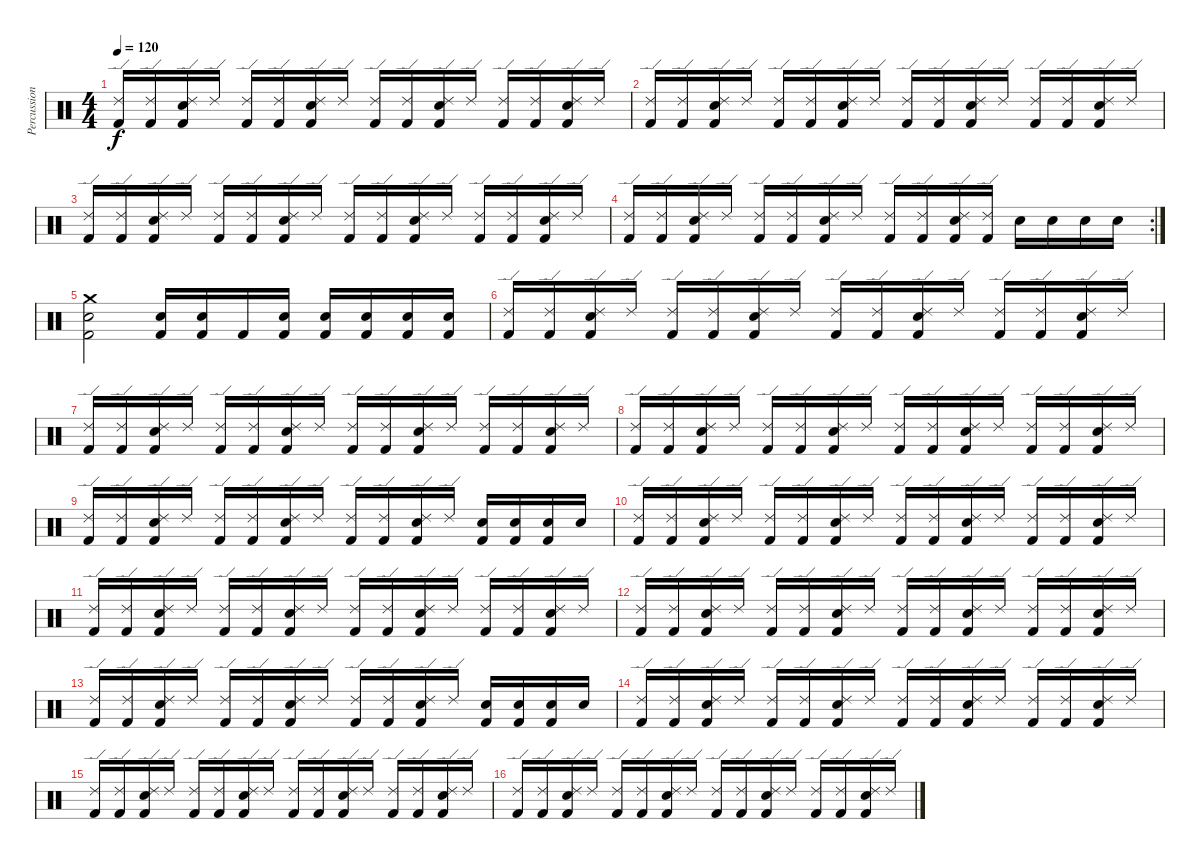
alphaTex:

\track ("Percussion" "Percussion") {instrument percussion}
\staff {score}
\articulation defaults
\ts (4 4)
\tempo 120
\clef neutral
\ks c
("Kick (hit) 2" "Ride (edge) 2").16{dy f} ("Kick (hit) 2" "Ride (edge) 2").16 ("Kick (hit) 2" "Snare (hit) 2" "Ride (edge) 2").16 "Ride (edge) 2".16 ("Kick (hit) 2" "Ride (edge) 2").16 ("Kick (hit) 2" "Ride (edge) 2").16 ("Kick (hit) 2" "Snare (hit) 2" "Ride (edge) 2").16 "Ride (edge) 2".16 ("Kick (hit) 2" "Ride (edge) 2").16 ("Kick (hit) 2" "Ride (edge) 2").16 ("Kick (hit) 2" "Snare (hit) 2" "Ride (edge) 2").16 "Ride (edge) 2".16 ("Kick (hit) 2" "Ride (edge) 2").16 ("Kick (hit) 2" "Ride (edge) 2").16 ("Kick (hit) 2" "Snare (hit) 2" "Ride (edge) 2").16 "Ride (edge) 2".16 |
("Kick (hit) 2" "Ride (edge) 2").16 ("Kick (hit) 2" "Ride (edge) 2").16 ("Kick (hit) 2" "Snare (hit) 2" "Ride (edge) 2").16 "Ride (edge) 2".16 ("Kick (hit) 2" "Ride (edge) 2").16 ("Kick (hit) 2" "Ride (edge) 2").16 ("Kick (hit) 2" "Snare (hit) 2" "Ride (edge) 2").16 "Ride (edge) 2".16 ("Kick (hit) 2" "Ride (edge) 2").16 ("Kick (hit) 2" "Ride (edge) 2").16 ("Kick (hit) 2" "Snare (hit) 2" "Ride (edge) 2").16 "Ride (edge) 2".16 ("Kick (hit) 2" "Ride (edge) 2").16 ("Kick (hit) 2" "Ride (edge) 2").16 ("Kick (hit) 2" "Snare (hit) 2" "Ride (edge) 2").16 "Ride (edge) 2".16 |
("Kick (hit) 2" "Ride (edge) 2").16 ("Kick (hit) 2" "Ride (edge) 2").16 ("Kick (hit) 2" "Snare (hit) 2" "Ride (edge) 2").16 "Ride (edge) 2".16 ("Kick (hit) 2" "Ride (edge) 2").16 ("Kick (hit) 2" "Ride (edge) 2").16 ("Kick (hit) 2" "Snare (hit) 2" "Ride (edge) 2").16 "Ride (edge) 2".16 ("Kick (hit) 2" "Ride (edge) 2").16 ("Kick (hit) 2" "Ride (edge) 2").16 ("Kick (hit) 2" "Snare (hit) 2" "Ride (edge) 2").16 "Ride (edge) 2".16 ("Kick (hit) 2" "Ride (edge) 2").16 ("Kick (hit) 2" "Ride (edge) 2").16 ("Kick (hit) 2" "Snare (hit) 2" "Ride (edge) 2").16 "Ride (edge) 2".16 |
\rc 2
("Kick (hit) 2" "Ride (edge) 2").16 ("Kick (hit) 2" "Ride (edge) 2").16 ("Kick (hit) 2" "Snare (hit) 2" "Ride (edge) 2").16 "Ride (edge) 2".16 ("Kick (hit) 2" "Ride (edge) 2").16 ("Kick (hit) 2" "Ride (edge) 2").16 ("Kick (hit) 2" "Snare (hit) 2" "Ride (edge) 2").16 "Ride (edge) 2".16 ("Kick (hit) 2" "Ride (edge) 2").16 ("Kick (hit) 2" "Ride (edge) 2").16 ("Kick (hit) 2" "Snare (hit) 2" "Ride (edge) 2").16 ("Kick (hit) 2" "Ride (edge) 2").16 "Snare (hit) 2".16 "Snare (hit) 2".16 "Snare (hit) 2".16 "Snare (hit) 2".16 |
("Kick (hit) 2" "Snare (hit) 2" "Crash medium (hit)").2 ("Kick (hit) 2" "Snare (hit) 2").16 ("Kick (hit) 2" "Snare (hit) 2").16 "Kick (hit) 2".16 ("Kick (hit) 2" "Snare (hit) 2").16 ("Kick (hit) 2" "Snare (hit) 2").16 ("Kick (hit) 2" "Snare (hit) 2").16 ("Kick (hit) 2" "Snare (hit) 2").16 ("Kick (hit) 2" "Snare (hit) 2").16 |
("Kick (hit) 2" "Ride (edge) 2").16 ("Kick (hit) 2" "Ride (edge) 2").16 ("Kick (hit) 2" "Snare (hit) 2" "Ride (edge) 2").16 "Ride (edge) 2".16 ("Kick (hit) 2" "Ride (edge) 2").16 ("Kick (hit) 2" "Ride (edge) 2").16 ("Kick (hit) 2" "Snare (hit) 2" "Ride (edge) 2").16 "Ride (edge) 2".16 ("Kick (hit) 2" "Ride (edge) 2").16 ("Kick (hit) 2" "Ride (edge) 2").16 ("Kick (hit) 2" "Snare (hit) 2" "Ride (edge) 2").16 "Ride (edge) 2".16 ("Kick (hit) 2" "Ride (edge) 2").16 ("Kick (hit) 2" "Ride (edge) 2").16 ("Kick (hit) 2" "Snare (hit) 2" "Ride (edge) 2").16 "Ride (edge) 2".16 |
("Kick (hit) 2" "Ride (edge) 2").16 ("Kick (hit) 2" "Ride (edge) 2").16 ("Kick (hit) 2" "Snare (hit) 2" "Ride (edge) 2").16 "Ride (edge) 2".16 ("Kick (hit) 2" "Ride (edge) 2").16 ("Kick (hit) 2" "Ride (edge) 2").16 ("Kick (hit) 2" "Snare (hit) 2" "Ride (edge) 2").16 "Ride (edge) 2".16 ("Kick (hit) 2" "Ride (edge) 2").16 ("Kick (hit) 2" "Ride (edge) 2").16 ("Kick (hit) 2" "Snare (hit) 2" "Ride (edge) 2").16 "Ride (edge) 2".16 ("Kick (hit) 2" "Ride (edge) 2").16 ("Kick (hit) 2" "Ride (edge) 2").16 ("Kick (hit) 2" "Snare (hit) 2" "Ride (edge) 2").16 "Ride (edge) 2".16 |
("Kick (hit) 2" "Ride (edge) 2").16 ("Kick (hit) 2" "Ride (edge) 2").16 ("Kick (hit) 2" "Snare (hit) 2" "Ride (edge) 2").16 "Ride (edge) 2".16 ("Kick (hit) 2" "Ride (edge) 2").16 ("Kick (hit) 2" "Ride (edge) 2").16 ("Kick (hit) 2" "Snare (hit) 2" "Ride (edge) 2").16 "Ride (edge) 2".16 ("Kick (hit) 2" "Ride (edge) 2").16 ("Kick (hit) 2" "Ride (edge) 2").16 ("Kick (hit) 2" "Snare (hit) 2" "Ride (edge) 2").16 "Ride (edge) 2".16 ("Kick (hit) 2" "Ride (edge) 2").16 ("Kick (hit) 2" "Ride (edge) 2").16 ("Kick (hit) 2" "Snare (hit) 2" "Ride (edge) 2").16 "Ride (edge) 2".16 |
("Kick (hit) 2" "Ride (edge) 2").16 ("Kick (hit) 2" "Ride (edge) 2").16 ("Kick (hit) 2" "Snare (hit) 2" "Ride (edge) 2").16 "Ride (edge) 2".16 ("Kick (hit) 2" "Ride (edge) 2").16 ("Kick (hit) 2" "Ride (edge) 2").16 ("Kick (hit) 2" "Snare (hit) 2" "Ride (edge) 2").16 "Ride (edge) 2".16 ("Kick (hit) 2" "Ride (edge) 2").16 ("Kick (hit) 2" "Ride (edge) 2").16 ("Kick (hit) 2" "Snare (hit) 2" "Ride (edge) 2").16 "Ride (edge) 2".16 ("Kick (hit) 2" "Snare (hit) 2").16 ("Kick (hit) 2" "Snare (hit) 2").16 ("Kick (hit) 2" "Snare (hit) 2").16 "Snare (hit) 2".16 |
("Kick (hit) 2" "Ride (edge) 2").16 ("Kick (hit) 2" "Ride (edge) 2").16 ("Kick (hit) 2" "Snare (hit) 2" "Ride (edge) 2").16 "Ride (edge) 2".16 ("Kick (hit) 2" "Ride (edge) 2").16 ("Kick (hit) 2" "Ride (edge) 2").16 ("Kick (hit) 2" "Snare (hit) 2" "Ride (edge) 2").16 "Ride (edge) 2".16 ("Kick (hit) 2" "Ride (edge) 2").16 ("Kick (hit) 2" "Ride (edge) 2").16 ("Kick (hit) 2" "Snare (hit) 2" "Ride (edge) 2").16 "Ride (edge) 2".16 ("Kick (hit) 2" "Ride (edge) 2").16 ("Kick (hit) 2" "Ride (edge) 2").16 ("Kick (hit) 2" "Snare (hit) 2" "Ride (edge) 2").16 "Ride (edge) 2".16 |
("Kick (hit) 2" "Ride (edge) 2").16 ("Kick (hit) 2" "Ride (edge) 2").16 ("Kick (hit) 2" "Snare (hit) 2" "Ride (edge) 2").16 "Ride (edge) 2".16 ("Kick (hit) 2" "Ride (edge) 2").16 ("Kick (hit) 2" "Ride (edge) 2").16 ("Kick (hit) 2" "Snare (hit) 2" "Ride (edge) 2").16 "Ride (edge) 2".16 ("Kick (hit) 2" "Ride (edge) 2").16 ("Kick (hit) 2" "Ride (edge) 2").16 ("Kick (hit) 2" "Snare (hit) 2" "Ride (edge) 2").16 "Ride (edge) 2".16 ("Kick (hit) 2" "Ride (edge) 2").16 ("Kick (hit) 2" "Ride (edge) 2").16 ("Kick (hit) 2" "Snare (hit) 2" "Ride (edge) 2").16 "Ride (edge) 2".16 |
("Kick (hit) 2" "Ride (edge) 2").16 ("Kick (hit) 2" "Ride (edge) 2").16 ("Kick (hit) 2" "Snare (hit) 2" "Ride (edge) 2").16 "Ride (edge) 2".16 ("Kick (hit) 2" "Ride (edge) 2").16 ("Kick (hit) 2" "Ride (edge) 2").16 ("Kick (hit) 2" "Snare (hit) 2" "Ride (edge) 2").16 "Ride (edge) 2".16 ("Kick (hit) 2" "Ride (edge) 2").16 ("Kick (hit) 2" "Ride (edge) 2").16 ("Kick (hit) 2" "Snare (hit) 2" "Ride (edge) 2").16 "Ride (edge) 2".16 ("Kick (hit) 2" "Ride (edge) 2").16 ("Kick (hit) 2" "Ride (edge) 2").16 ("Kick (hit) 2" "Snare (hit) 2" "Ride (edge) 2").16 "Ride (edge) 2".16 |
("Kick (hit) 2" "Ride (edge) 2").16 ("Kick (hit) 2" "Ride (edge) 2").16 ("Kick (hit) 2" "Snare (hit) 2" "Ride (edge) 2").16 "Ride (edge) 2".16 ("Kick (hit) 2" "Ride (edge) 2").16 ("Kick (hit) 2" "Ride (edge) 2").16 ("Kick (hit) 2" "Snare (hit) 2" "Ride (edge) 2").16 "Ride (edge) 2".16 ("Kick (hit) 2" "Ride (edge) 2").16 ("Kick (hit) 2" "Ride (edge) 2").16 ("Kick (hit) 2" "Snare (hit) 2" "Ride (edge) 2").16 "Ride (edge) 2".16 ("Kick (hit) 2" "Snare (hit) 2").16 ("Kick (hit) 2" "Snare (hit) 2").16 ("Kick (hit) 2" "Snare (hit) 2").16 "Snare (hit) 2".16 |
("Kick (hit) 2" "Ride (edge) 2").16 ("Kick (hit) 2" "Ride (edge) 2").16 ("Kick (hit) 2" "Snare (hit) 2" "Ride (edge) 2").16 "Ride (edge) 2".16 ("Kick (hit) 2" "Ride (edge) 2").16 ("Kick (hit) 2" "Ride (edge) 2").16 ("Kick (hit) 2" "Snare (hit) 2" "Ride (edge) 2").16 "Ride (edge) 2".16 ("Kick (hit) 2" "Ride (edge) 2").16 ("Kick (hit) 2" "Ride (edge) 2").16 ("Kick (hit) 2" "Snare (hit) 2" "Ride (edge) 2").16 "Ride (edge) 2".16 ("Kick (hit) 2" "Ride (edge) 2").16 ("Kick (hit) 2" "Ride (edge) 2").16 ("Kick (hit) 2" "Snare (hit) 2" "Ride (edge) 2").16 "Ride (edge) 2".16 |
("Kick (hit) 2" "Ride (edge) 2").16 ("Kick (hit) 2" "Ride (edge) 2").16 ("Kick (hit) 2" "Snare (hit) 2" "Ride (edge) 2").16 "Ride (edge) 2".16 ("Kick (hit) 2" "Ride (edge) 2").16 ("Kick (hit) 2" "Ride (edge) 2").16 ("Kick (hit) 2" "Snare (hit) 2" "Ride (edge) 2").16 "Ride (edge) 2".16 ("Kick (hit) 2" "Ride (edge) 2").16 ("Kick (hit) 2" "Ride (edge) 2").16 ("Kick (hit) 2" "Snare (hit) 2" "Ride (edge) 2").16 "Ride (edge) 2".16 ("Kick (hit) 2" "Ride (edge) 2").16 ("Kick (hit) 2" "Ride (edge) 2").16 ("Kick (hit) 2" "Snare (hit) 2" "Ride (edge) 2").16 "Ride (edge) 2".16 |
("Kick (hit) 2" "Ride (edge) 2").16 ("Kick (hit) 2" "Ride (edge) 2").16 ("Kick (hit) 2" "Snare (hit) 2" "Ride (edge) 2").16 "Ride (edge) 2".16 ("Kick (hit) 2" "Ride (edge) 2").16 ("Kick (hit) 2" "Ride (edge) 2").16 ("Kick (hit) 2" "Snare (hit) 2" "Ride (edge) 2").16 "Ride (edge) 2".16 ("Kick (hit) 2" "Ride (edge) 2").16 ("Kick (hit) 2" "Ride (edge) 2").16 ("Kick (hit) 2" "Snare (hit) 2" "Ride (edge) 2").16 "Ride (edge) 2".16 ("Kick (hit) 2" "Ride (edge) 2").16 ("Kick (hit) 2" "Ride (edge) 2").16 ("Kick (hit) 2" "Snare (hit) 2" "Ride (edge) 2").16 "Ride (edge) 2".16
